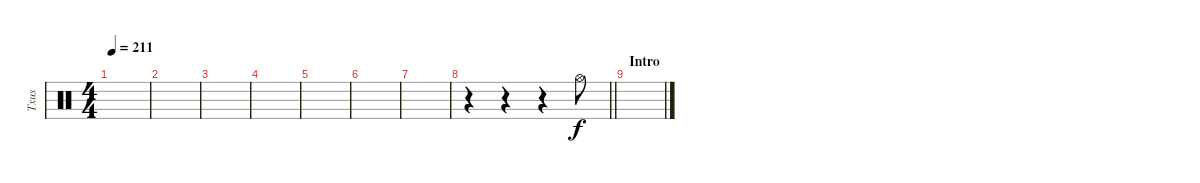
\track ("Txus" "Txus") {instrument percussion}
\staff {score}
\articulation defaults
\ts (4 4)
\tempo 211
\clef neutral
\ks c
|
|
|
|
|
|
|
\barLineRight lightlight
r.4 r.4 r.4 "Hi-Hat (open)".8 |
\section ("" "Intro")
